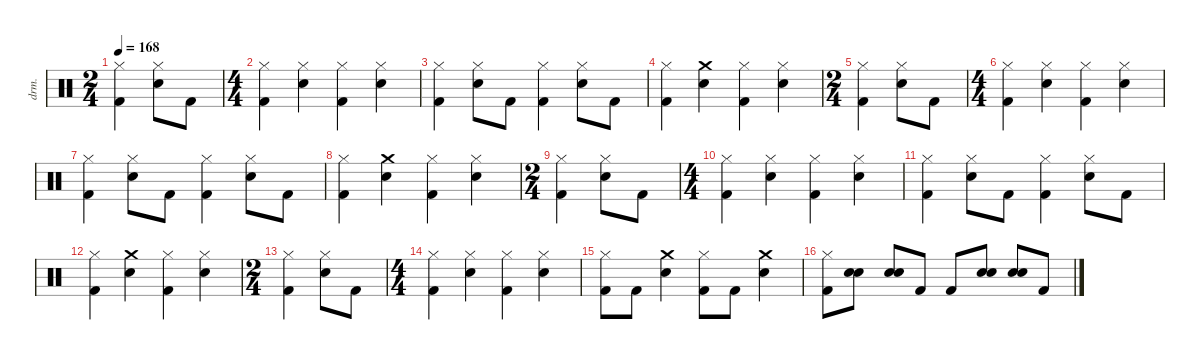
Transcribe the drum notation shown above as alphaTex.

\defaultSystemsLayout 4
\hideDynamics
\bracketExtendMode nobrackets
\otherSystemsTrackNameOrientation horizontal
\track ("Drums" "drm.") {instrument percussion}
\staff {score}
\articulation defaults
\ts (2 4)
\beaming (8 2 2)
\tempo 168
\clef neutral
\ks c
("Hi-Hat (closed)" "Kick (hit) 2").4{dy fff} ("Snare (hit) 2" "Hi-Hat (closed)").8 "Kick (hit) 2".8 |
\ts (4 4)
\beaming (8 2 2 2 2)
("Kick (hit) 2" "Hi-Hat (closed)").4 ("Snare (hit) 2" "Hi-Hat (closed)").4 ("Kick (hit) 2" "Hi-Hat (closed)").4 ("Snare (hit) 2" "Hi-Hat (closed)").4 |
("Hi-Hat (closed)" "Kick (hit) 2").4 ("Snare (hit) 2" "Hi-Hat (closed)").8 "Kick (hit) 2".8 ("Kick (hit) 2" "Hi-Hat (closed)").4 ("Hi-Hat (closed)" "Snare (hit) 2").8 "Kick (hit) 2".8 |
("Hi-Hat (closed)" "Kick (hit) 2").4 ("Crash medium (hit)" "Snare (hit) 2").4 ("Hi-Hat (closed)" "Kick (hit) 2").4 ("Snare (hit) 2" "Hi-Hat (closed)").4 |
\ts (2 4)
\beaming (8 2 2)
("Hi-Hat (closed)" "Kick (hit) 2").4 ("Snare (hit) 2" "Hi-Hat (closed)").8 "Kick (hit) 2".8 |
\ts (4 4)
\beaming (8 2 2 2 2)
("Kick (hit) 2" "Hi-Hat (closed)").4 ("Snare (hit) 2" "Hi-Hat (closed)").4 ("Kick (hit) 2" "Hi-Hat (closed)").4 ("Snare (hit) 2" "Hi-Hat (closed)").4 |
("Hi-Hat (closed)" "Kick (hit) 2").4 ("Snare (hit) 2" "Hi-Hat (closed)").8 "Kick (hit) 2".8 ("Kick (hit) 2" "Hi-Hat (closed)").4 ("Hi-Hat (closed)" "Snare (hit) 2").8 "Kick (hit) 2".8 |
("Hi-Hat (closed)" "Kick (hit) 2").4 ("Crash medium (hit)" "Snare (hit) 2").4 ("Hi-Hat (closed)" "Kick (hit) 2").4 ("Snare (hit) 2" "Hi-Hat (closed)").4 |
\ts (2 4)
\beaming (8 2 2)
("Hi-Hat (closed)" "Kick (hit) 2").4 ("Snare (hit) 2" "Hi-Hat (closed)").8 "Kick (hit) 2".8 |
\ts (4 4)
\beaming (8 2 2 2 2)
("Kick (hit) 2" "Hi-Hat (closed)").4 ("Snare (hit) 2" "Hi-Hat (closed)").4 ("Kick (hit) 2" "Hi-Hat (closed)").4 ("Snare (hit) 2" "Hi-Hat (closed)").4 |
("Hi-Hat (closed)" "Kick (hit) 2").4 ("Snare (hit) 2" "Hi-Hat (closed)").8 "Kick (hit) 2".8 ("Kick (hit) 2" "Hi-Hat (closed)").4 ("Hi-Hat (closed)" "Snare (hit) 2").8 "Kick (hit) 2".8 |
("Hi-Hat (closed)" "Kick (hit) 2").4 ("Crash medium (hit)" "Snare (hit) 2").4 ("Hi-Hat (closed)" "Kick (hit) 2").4 ("Snare (hit) 2" "Hi-Hat (closed)").4 |
\ts (2 4)
\beaming (8 2 2)
("Hi-Hat (closed)" "Kick (hit) 2").4 ("Snare (hit) 2" "Hi-Hat (closed)").8 "Kick (hit) 2".8 |
\ts (4 4)
\beaming (8 2 2 2 2)
("Kick (hit) 2" "Hi-Hat (closed)").4 ("Snare (hit) 2" "Hi-Hat (closed)").4 ("Kick (hit) 2" "Hi-Hat (closed)").4 ("Snare (hit) 2" "Hi-Hat (closed)").4 |
("Kick (hit) 2" "Hi-Hat (closed)").8 "Kick (hit) 2".8 ("Crash medium (hit)" "Snare (hit) 2").4 ("Kick (hit) 2" "Hi-Hat (closed)").8 "Kick (hit) 2".8 ("Crash medium (hit)" "Snare (hit) 2").4 |
("Kick (hit) 2" "Hi-Hat (closed)").8 ("Snare (hit) 2" "Snare (hit) 2").8{dy f} ("Snare (hit) 2" "Snare (hit) 2").8 "Kick (hit) 2".8{dy fff} "Kick (hit) 2".8 ("Snare (hit) 2" "Snare (hit) 2").8{dy f} ("Snare (hit) 2" "Snare (hit) 2").8 "Kick (hit) 2".8{dy fff}
